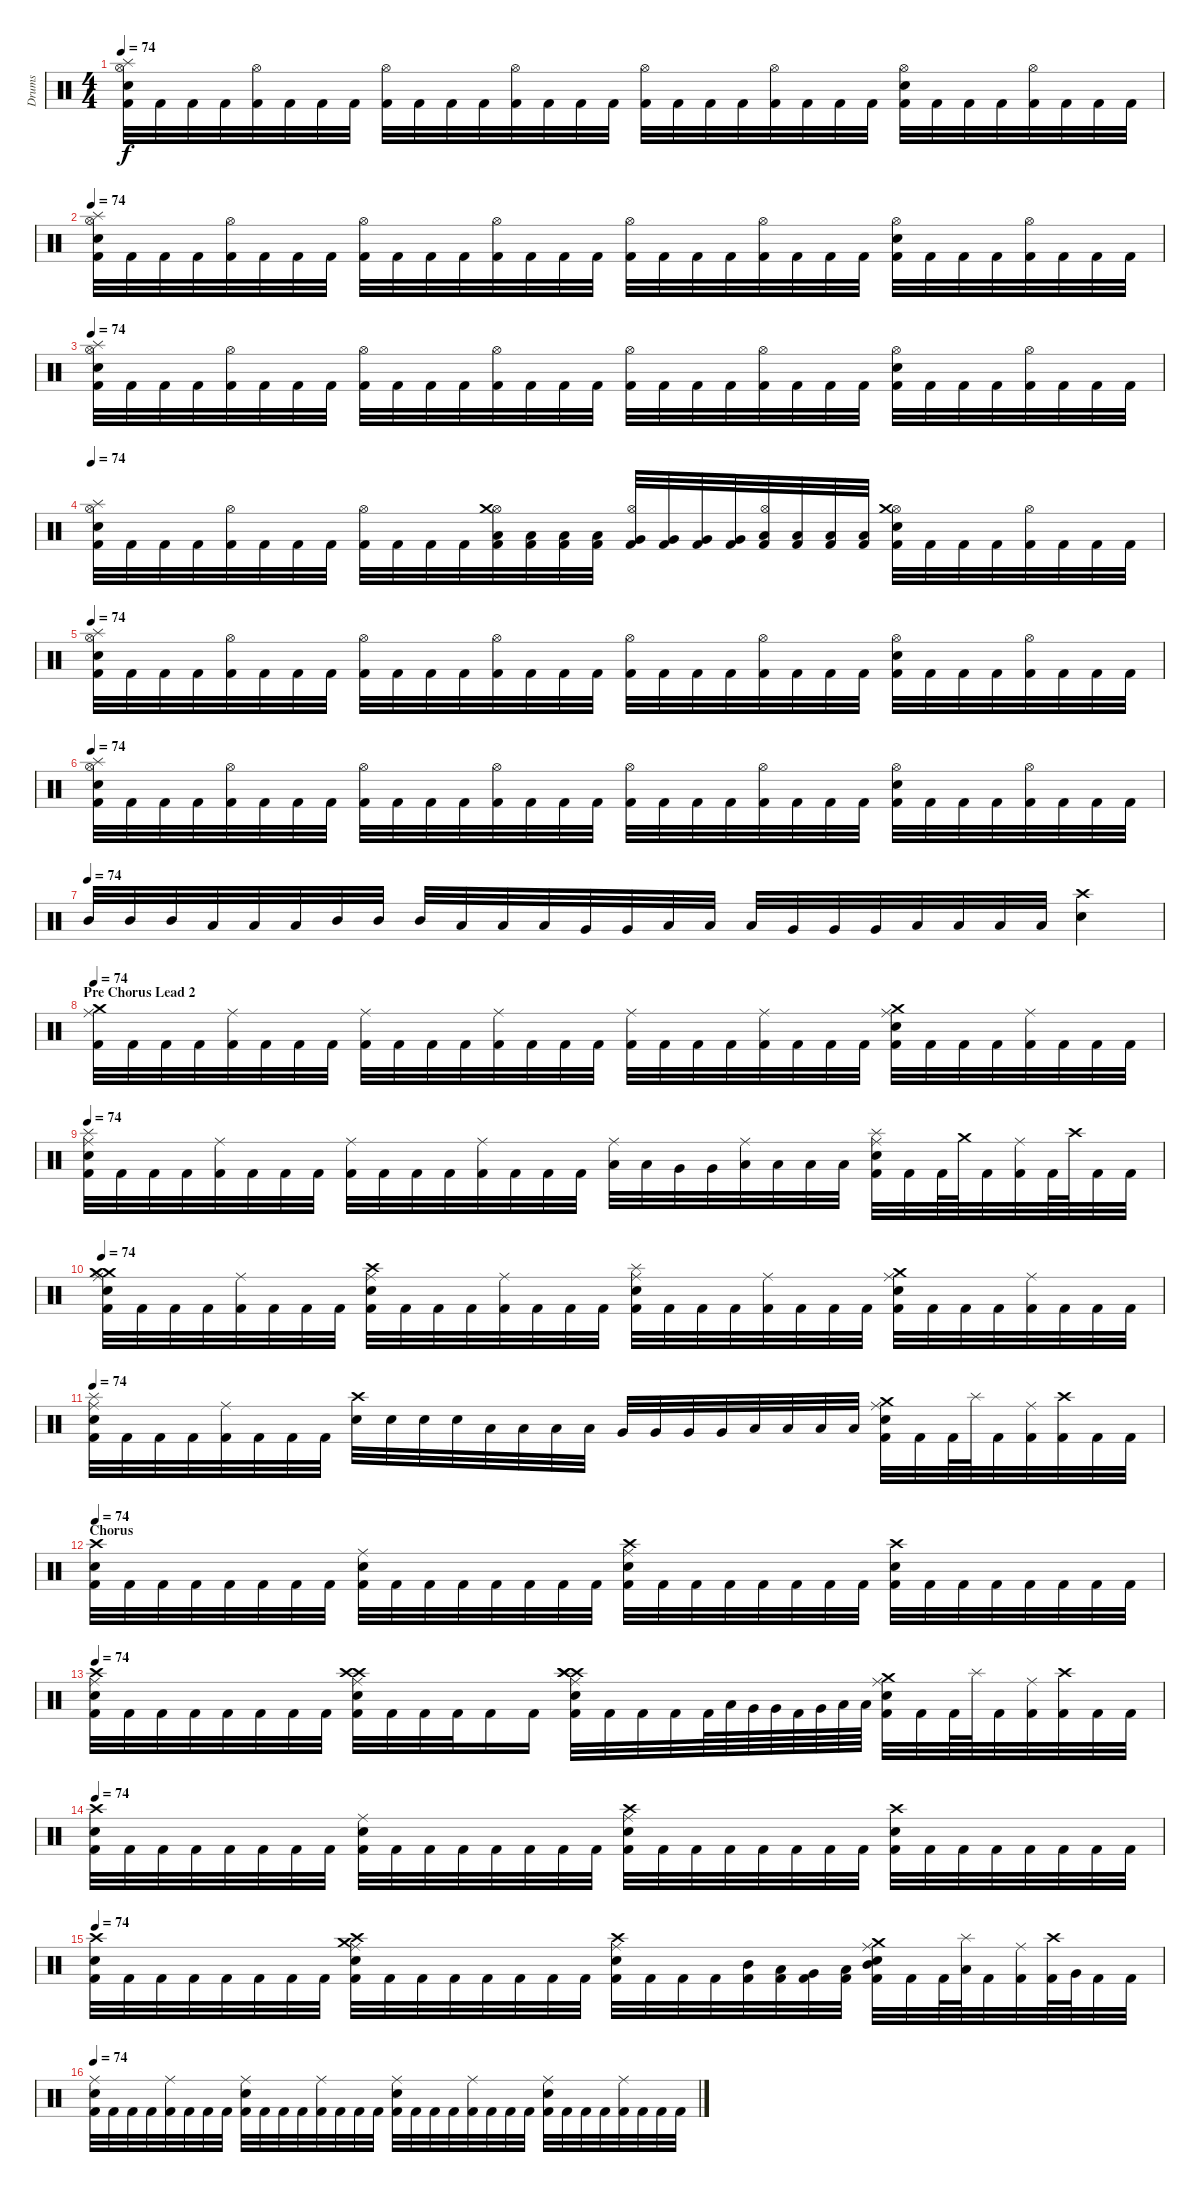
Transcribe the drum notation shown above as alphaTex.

\track ("Drums" "Drums") {instrument percussion}
\staff {score}
\articulation defaults
\ts (4 4)
\tempo 74
\clef neutral
\ks c
("Electric Snare (hit)" "Splash (hit)" "Kick (hit) 2" "Hi-Hat (open)").32{dy f} "Kick (hit) 2".32 "Kick (hit) 2".32 "Kick (hit) 2".32 ("Hi-Hat (open)" "Kick (hit) 2").32 "Kick (hit) 2".32 "Kick (hit) 2".32 "Kick (hit) 2".32 ("Hi-Hat (open)" "Kick (hit) 2").32 "Kick (hit) 2".32 "Kick (hit) 2".32 "Kick (hit) 2".32 ("Hi-Hat (open)" "Kick (hit) 2").32 "Kick (hit) 2".32 "Kick (hit) 2".32 "Kick (hit) 2".32 ("Hi-Hat (open)" "Kick (hit) 2").32 "Kick (hit) 2".32 "Kick (hit) 2".32 "Kick (hit) 2".32 ("Hi-Hat (open)" "Kick (hit) 2").32 "Kick (hit) 2".32 "Kick (hit) 2".32 "Kick (hit) 2".32 ("Hi-Hat (open)" "Electric Snare (hit)" "Kick (hit) 2").32 "Kick (hit) 2".32 "Kick (hit) 2".32 "Kick (hit) 2".32 ("Hi-Hat (open)" "Kick (hit) 2").32 "Kick (hit) 2".32 "Kick (hit) 2".32 "Kick (hit) 2".32 |
\tempo 74
("Hi-Hat (open)" "Kick (hit) 2" "Splash (hit)" "Electric Snare (hit)").32 "Kick (hit) 2".32 "Kick (hit) 2".32 "Kick (hit) 2".32 ("Hi-Hat (open)" "Kick (hit) 2").32 "Kick (hit) 2".32 "Kick (hit) 2".32 "Kick (hit) 2".32 ("Hi-Hat (open)" "Kick (hit) 2").32 "Kick (hit) 2".32 "Kick (hit) 2".32 "Kick (hit) 2".32 ("Hi-Hat (open)" "Kick (hit) 2").32 "Kick (hit) 2".32 "Kick (hit) 2".32 "Kick (hit) 2".32 ("Hi-Hat (open)" "Kick (hit) 2").32 "Kick (hit) 2".32 "Kick (hit) 2".32 "Kick (hit) 2".32 ("Hi-Hat (open)" "Kick (hit) 2").32 "Kick (hit) 2".32 "Kick (hit) 2".32 "Kick (hit) 2".32 ("Hi-Hat (open)" "Electric Snare (hit)" "Kick (hit) 2").32 "Kick (hit) 2".32 "Kick (hit) 2".32 "Kick (hit) 2".32 ("Hi-Hat (open)" "Kick (hit) 2").32 "Kick (hit) 2".32 "Kick (hit) 2".32 "Kick (hit) 2".32 |
\tempo 74
("Hi-Hat (open)" "Kick (hit) 2" "Splash (hit)" "Electric Snare (hit)").32 "Kick (hit) 2".32 "Kick (hit) 2".32 "Kick (hit) 2".32 ("Hi-Hat (open)" "Kick (hit) 2").32 "Kick (hit) 2".32 "Kick (hit) 2".32 "Kick (hit) 2".32 ("Hi-Hat (open)" "Kick (hit) 2").32 "Kick (hit) 2".32 "Kick (hit) 2".32 "Kick (hit) 2".32 ("Hi-Hat (open)" "Kick (hit) 2").32 "Kick (hit) 2".32 "Kick (hit) 2".32 "Kick (hit) 2".32 ("Hi-Hat (open)" "Kick (hit) 2").32 "Kick (hit) 2".32 "Kick (hit) 2".32 "Kick (hit) 2".32 ("Hi-Hat (open)" "Kick (hit) 2").32 "Kick (hit) 2".32 "Kick (hit) 2".32 "Kick (hit) 2".32 ("Hi-Hat (open)" "Electric Snare (hit)" "Kick (hit) 2").32 "Kick (hit) 2".32 "Kick (hit) 2".32 "Kick (hit) 2".32 ("Hi-Hat (open)" "Kick (hit) 2").32 "Kick (hit) 2".32 "Kick (hit) 2".32 "Kick (hit) 2".32 |
\tempo 74
("Electric Snare (hit)" "Splash (hit)" "Kick (hit) 2" "Hi-Hat (open)").32 "Kick (hit) 2".32 "Kick (hit) 2".32 "Kick (hit) 2".32 ("Hi-Hat (open)" "Kick (hit) 2").32 "Kick (hit) 2".32 "Kick (hit) 2".32 "Kick (hit) 2".32 ("Hi-Hat (open)" "Kick (hit) 2").32 "Kick (hit) 2".32 "Kick (hit) 2".32 "Kick (hit) 2".32 ("Hi-Hat (open)" "Kick (hit) 2" "Low Tom (hit)" "Crash medium (hit)").32 ("Kick (hit) 2" "Low Tom (hit)").32 ("Kick (hit) 2" "Low Tom (hit)").32 ("Kick (hit) 2" "Low Tom (hit)").32 ("Hi-Hat (open)" "Kick (hit) 2" "Very Low Tom (hit)").32 ("Kick (hit) 2" "Very Low Tom (hit)").32 ("Kick (hit) 2" "Very Low Tom (hit)").32 ("Kick (hit) 2" "Very Low Tom (hit)").32 ("Hi-Hat (open)" "Kick (hit) 2" "Low Floor Tom (hit)").32 ("Kick (hit) 2" "Low Floor Tom (hit)").32 ("Kick (hit) 2" "Low Floor Tom (hit)").32 ("Kick (hit) 2" "Low Floor Tom (hit)").32 ("Hi-Hat (open)" "Electric Snare (hit)" "Kick (hit) 2" "Crash medium (hit)").32 "Kick (hit) 2".32 "Kick (hit) 2".32 "Kick (hit) 2".32 ("Hi-Hat (open)" "Kick (hit) 2").32 "Kick (hit) 2".32 "Kick (hit) 2".32 "Kick (hit) 2".32 |
\tempo 74
("Electric Snare (hit)" "Splash (hit)" "Kick (hit) 2" "Hi-Hat (open)").32 "Kick (hit) 2".32 "Kick (hit) 2".32 "Kick (hit) 2".32 ("Hi-Hat (open)" "Kick (hit) 2").32 "Kick (hit) 2".32 "Kick (hit) 2".32 "Kick (hit) 2".32 ("Hi-Hat (open)" "Kick (hit) 2").32 "Kick (hit) 2".32 "Kick (hit) 2".32 "Kick (hit) 2".32 ("Hi-Hat (open)" "Kick (hit) 2").32 "Kick (hit) 2".32 "Kick (hit) 2".32 "Kick (hit) 2".32 ("Hi-Hat (open)" "Kick (hit) 2").32 "Kick (hit) 2".32 "Kick (hit) 2".32 "Kick (hit) 2".32 ("Hi-Hat (open)" "Kick (hit) 2").32 "Kick (hit) 2".32 "Kick (hit) 2".32 "Kick (hit) 2".32 ("Hi-Hat (open)" "Electric Snare (hit)" "Kick (hit) 2").32 "Kick (hit) 2".32 "Kick (hit) 2".32 "Kick (hit) 2".32 ("Hi-Hat (open)" "Kick (hit) 2").32 "Kick (hit) 2".32 "Kick (hit) 2".32 "Kick (hit) 2".32 |
\tempo 74
("Hi-Hat (open)" "Kick (hit) 2" "Splash (hit)" "Electric Snare (hit)").32 "Kick (hit) 2".32 "Kick (hit) 2".32 "Kick (hit) 2".32 ("Hi-Hat (open)" "Kick (hit) 2").32 "Kick (hit) 2".32 "Kick (hit) 2".32 "Kick (hit) 2".32 ("Hi-Hat (open)" "Kick (hit) 2").32 "Kick (hit) 2".32 "Kick (hit) 2".32 "Kick (hit) 2".32 ("Hi-Hat (open)" "Kick (hit) 2").32 "Kick (hit) 2".32 "Kick (hit) 2".32 "Kick (hit) 2".32 ("Hi-Hat (open)" "Kick (hit) 2").32 "Kick (hit) 2".32 "Kick (hit) 2".32 "Kick (hit) 2".32 ("Hi-Hat (open)" "Kick (hit) 2").32 "Kick (hit) 2".32 "Kick (hit) 2".32 "Kick (hit) 2".32 ("Hi-Hat (open)" "Electric Snare (hit)" "Kick (hit) 2").32 "Kick (hit) 2".32 "Kick (hit) 2".32 "Kick (hit) 2".32 ("Hi-Hat (open)" "Kick (hit) 2").32 "Kick (hit) 2".32 "Kick (hit) 2".32 "Kick (hit) 2".32 |
\tempo (74)
"Mid Tom (hit)".32 "Mid Tom (hit)".32 "Mid Tom (hit)".32 "Low Tom (hit)".32 "Low Tom (hit)".32 "Low Tom (hit)".32 "Mid Tom (hit)".32 "Mid Tom (hit)".32 "Mid Tom (hit)".32 "Low Tom (hit)".32 "Low Tom (hit)".32 "Low Tom (hit)".32 "Very Low Tom (hit)".32 "Very Low Tom (hit)".32 "Low Tom (hit)".32 "Low Tom (hit)".32 "Low Tom (hit)".32 "Very Low Tom (hit)".32 "Very Low Tom (hit)".32 "Very Low Tom (hit)".32 "Low Floor Tom (hit)".32 "Low Floor Tom (hit)".32 "Low Floor Tom (hit)".32 "Low Floor Tom (hit)".32 ("Crash high (hit)" "Electric Snare (hit)").4 |
\section ("" "Pre Chorus Lead 2")
\tempo 74
("Kick (hit) 2" "Ride (middle)" "Crash medium (hit)").32 "Kick (hit) 2".32 "Kick (hit) 2".32 "Kick (hit) 2".32 ("Ride (middle)" "Kick (hit) 2").32 "Kick (hit) 2".32 "Kick (hit) 2".32 "Kick (hit) 2".32 ("Ride (middle)" "Kick (hit) 2").32 "Kick (hit) 2".32 "Kick (hit) 2".32 "Kick (hit) 2".32 ("Ride (middle)" "Kick (hit) 2").32 "Kick (hit) 2".32 "Kick (hit) 2".32 "Kick (hit) 2".32 ("Ride (middle)" "Kick (hit) 2").32 "Kick (hit) 2".32 "Kick (hit) 2".32 "Kick (hit) 2".32 ("Ride (middle)" "Kick (hit) 2").32 "Kick (hit) 2".32 "Kick (hit) 2".32 "Kick (hit) 2".32 ("Crash medium (hit)" "Ride (middle)" "Kick (hit) 2" "Electric Snare (hit)").32 "Kick (hit) 2".32 "Kick (hit) 2".32 "Kick (hit) 2".32 ("Ride (middle)" "Kick (hit) 2").32 "Kick (hit) 2".32 "Kick (hit) 2".32 "Kick (hit) 2".32 |
\tempo 74
("Electric Snare (hit)" "Kick (hit) 2" "Ride (middle)" "Splash (hit)").32 "Kick (hit) 2".32 "Kick (hit) 2".32 "Kick (hit) 2".32 ("Ride (middle)" "Kick (hit) 2").32 "Kick (hit) 2".32 "Kick (hit) 2".32 "Kick (hit) 2".32 ("Ride (middle)" "Kick (hit) 2").32 "Kick (hit) 2".32 "Kick (hit) 2".32 "Kick (hit) 2".32 ("Ride (middle)" "Kick (hit) 2").32 "Kick (hit) 2".32 "Kick (hit) 2".32 "Kick (hit) 2".32 ("Ride (middle)" "Low Tom (hit)").32 "Low Tom (hit)".32 "Very Low Tom (hit)".32 "Very Low Tom (hit)".32 ("Ride (middle)" "Low Floor Tom (hit)").32 "Low Floor Tom (hit)".32 "Low Floor Tom (hit)".32 "Low Floor Tom (hit)".32 ("Ride (middle)" "Kick (hit) 2" "Electric Snare (hit)" "Splash (hit)").32 "Kick (hit) 2".32 "Kick (hit) 2".64 "Crash medium (hit)".64 "Kick (hit) 2".32 ("Ride (middle)" "Kick (hit) 2").32 "Kick (hit) 2".64 "Crash high (hit)".64 "Kick (hit) 2".32 "Kick (hit) 2".32 |
\tempo 74
("Crash medium (hit)" "Kick (hit) 2" "Ride (middle)" "Crash medium (hit)" "Electric Snare (hit)").32 "Kick (hit) 2".32 "Kick (hit) 2".32 "Kick (hit) 2".32 ("Ride (middle)" "Kick (hit) 2").32 "Kick (hit) 2".32 "Kick (hit) 2".32 "Kick (hit) 2".32 ("Ride (middle)" "Kick (hit) 2" "Electric Snare (hit)" "Crash high (hit)").32 "Kick (hit) 2".32 "Kick (hit) 2".32 "Kick (hit) 2".32 ("Ride (middle)" "Kick (hit) 2").32 "Kick (hit) 2".32 "Kick (hit) 2".32 "Kick (hit) 2".32 ("Ride (middle)" "Kick (hit) 2" "Electric Snare (hit)" "Splash (hit)").32 "Kick (hit) 2".32 "Kick (hit) 2".32 "Kick (hit) 2".32 ("Ride (middle)" "Kick (hit) 2").32 "Kick (hit) 2".32 "Kick (hit) 2".32 "Kick (hit) 2".32 ("Crash medium (hit)" "Ride (middle)" "Kick (hit) 2" "Electric Snare (hit)").32 "Kick (hit) 2".32 "Kick (hit) 2".32 "Kick (hit) 2".32 ("Ride (middle)" "Kick (hit) 2").32 "Kick (hit) 2".32 "Kick (hit) 2".32 "Kick (hit) 2".32 |
\tempo 74
("Splash (hit)" "Ride (middle)" "Kick (hit) 2" "Electric Snare (hit)").32 "Kick (hit) 2".32 "Kick (hit) 2".32 "Kick (hit) 2".32 ("Ride (middle)" "Kick (hit) 2").32 "Kick (hit) 2".32 "Kick (hit) 2".32 "Kick (hit) 2".32 ("Electric Snare (hit)" "Crash high (hit)").32 "Electric Snare (hit)".32 "Electric Snare (hit)".32 "Electric Snare (hit)".32 "Low Tom (hit)".32 "Low Tom (hit)".32 "Low Tom (hit)".32 "Low Tom (hit)".32 "Very Low Tom (hit)".32 "Very Low Tom (hit)".32 "Very Low Tom (hit)".32 "Very Low Tom (hit)".32 "Low Floor Tom (hit)".32 "Low Floor Tom (hit)".32 "Low Floor Tom (hit)".32 "Low Floor Tom (hit)".32 ("Crash medium (hit)" "Electric Snare (hit)" "Kick (hit) 2" "Ride (middle)").32 "Kick (hit) 2".32 "Kick (hit) 2".64 "Splash (hit)".64 "Kick (hit) 2".32 ("Ride (middle)" "Kick (hit) 2").32 ("Kick (hit) 2" "Crash high (hit)").32 "Kick (hit) 2".32 "Kick (hit) 2".32 |
\section ("" "Chorus")
\tempo 74
("Crash high (hit)" "Kick (hit) 2" "Electric Snare (hit)").32 "Kick (hit) 2".32 "Kick (hit) 2".32 "Kick (hit) 2".32 "Kick (hit) 2".32 "Kick (hit) 2".32 "Kick (hit) 2".32 "Kick (hit) 2".32 ("Electric Snare (hit)" "Kick (hit) 2" "Ride (middle)").32 "Kick (hit) 2".32 "Kick (hit) 2".32 "Kick (hit) 2".32 "Kick (hit) 2".32 "Kick (hit) 2".32 "Kick (hit) 2".32 "Kick (hit) 2".32 ("Electric Snare (hit)" "Kick (hit) 2" "Crash high (hit)" "Ride (middle)").32 "Kick (hit) 2".32 "Kick (hit) 2".32 "Kick (hit) 2".32 "Kick (hit) 2".32 "Kick (hit) 2".32 "Kick (hit) 2".32 "Kick (hit) 2".32 ("Electric Snare (hit)" "Kick (hit) 2" "Crash high (hit)").32 "Kick (hit) 2".32 "Kick (hit) 2".32 "Kick (hit) 2".32 "Kick (hit) 2".32 "Kick (hit) 2".32 "Kick (hit) 2".32 "Kick (hit) 2".32 |
\tempo 74
("Crash high (hit)" "Electric Snare (hit)" "Kick (hit) 2" "Ride (middle)").32 "Kick (hit) 2".32 "Kick (hit) 2".32 "Kick (hit) 2".32 "Kick (hit) 2".32 "Kick (hit) 2".32 "Kick (hit) 2".32 "Kick (hit) 2".32 ("Crash high (hit)" "Electric Snare (hit)" "Crash high (hit)" "Kick (hit) 2" "Ride (middle)").32 "Kick (hit) 2".32 "Kick (hit) 2".32 "Kick (hit) 2".32 "Kick (hit) 2".16 "Kick (hit) 2".16 ("Crash high (hit)" "Crash high (hit)" "Electric Snare (hit)" "Crash high (hit)" "Kick (hit) 2" "Ride (middle)").32 "Kick (hit) 2".32 "Kick (hit) 2".32 "Kick (hit) 2".32 "Kick (hit) 2".64 "Low Tom (hit)".64 "Very Low Tom (hit)".64 "Very Low Tom (hit)".64 "Kick (hit) 2".64 "Very Low Tom (hit)".64 "Low Floor Tom (hit)".64 "Low Floor Tom (hit)".64 ("Ride (middle)" "Kick (hit) 2" "Crash medium (hit)" "Electric Snare (hit)").32 "Kick (hit) 2".32 "Kick (hit) 2".64 "Splash (hit)".64 "Kick (hit) 2".32 ("Ride (middle)" "Kick (hit) 2").32 ("Kick (hit) 2" "Crash high (hit)").32 "Kick (hit) 2".32 "Kick (hit) 2".32 |
\tempo 74
("Electric Snare (hit)" "Kick (hit) 2" "Crash high (hit)").32 "Kick (hit) 2".32 "Kick (hit) 2".32 "Kick (hit) 2".32 "Kick (hit) 2".32 "Kick (hit) 2".32 "Kick (hit) 2".32 "Kick (hit) 2".32 ("Electric Snare (hit)" "Kick (hit) 2" "Ride (middle)").32 "Kick (hit) 2".32 "Kick (hit) 2".32 "Kick (hit) 2".32 "Kick (hit) 2".32 "Kick (hit) 2".32 "Kick (hit) 2".32 "Kick (hit) 2".32 ("Electric Snare (hit)" "Kick (hit) 2" "Crash high (hit)" "Ride (middle)").32 "Kick (hit) 2".32 "Kick (hit) 2".32 "Kick (hit) 2".32 "Kick (hit) 2".32 "Kick (hit) 2".32 "Kick (hit) 2".32 "Kick (hit) 2".32 ("Electric Snare (hit)" "Kick (hit) 2" "Crash high (hit)").32 "Kick (hit) 2".32 "Kick (hit) 2".32 "Kick (hit) 2".32 "Kick (hit) 2".32 "Kick (hit) 2".32 "Kick (hit) 2".32 "Kick (hit) 2".32 |
\tempo 74
("Electric Snare (hit)" "Kick (hit) 2" "Crash high (hit)").32 "Kick (hit) 2".32 "Kick (hit) 2".32 "Kick (hit) 2".32 "Kick (hit) 2".32 "Kick (hit) 2".32 "Kick (hit) 2".32 "Kick (hit) 2".32 ("Electric Snare (hit)" "Kick (hit) 2" "Ride (middle)" "Crash medium (hit)" "Crash high (hit)").32 "Kick (hit) 2".32 "Kick (hit) 2".32 "Kick (hit) 2".32 "Kick (hit) 2".32 "Kick (hit) 2".32 "Kick (hit) 2".32 "Kick (hit) 2".32 ("Electric Snare (hit)" "Kick (hit) 2" "Crash high (hit)" "Ride (middle)").32 "Kick (hit) 2".32 "Kick (hit) 2".32 "Kick (hit) 2".32 ("Kick (hit) 2" "Mid Tom (hit)").32 ("Kick (hit) 2" "Low Tom (hit)").32 ("Kick (hit) 2" "Very Low Tom (hit)").32 ("Kick (hit) 2" "Low Tom (hit)").32 ("Kick (hit) 2" "Electric Snare (hit)" "Crash medium (hit)" "Ride (middle)" "Mid Tom (hit)").32 "Kick (hit) 2".32 "Kick (hit) 2".64 ("Splash (hit)" "Low Tom (hit)").64 "Kick (hit) 2".32 ("Kick (hit) 2" "Ride (middle)").32 ("Kick (hit) 2" "Crash high (hit)").64 "Very Low Tom (hit)".64 "Kick (hit) 2".32 "Kick (hit) 2".32 |
\tempo 74
("Ride (middle)" "Kick (hit) 2" "Electric Snare (hit)").32 "Kick (hit) 2".32 "Kick (hit) 2".32 "Kick (hit) 2".32 ("Kick (hit) 2" "Ride (middle)").32 "Kick (hit) 2".32 "Kick (hit) 2".32 "Kick (hit) 2".32 ("Ride (middle)" "Kick (hit) 2" "Electric Snare (hit)").32 "Kick (hit) 2".32 "Kick (hit) 2".32 "Kick (hit) 2".32 ("Kick (hit) 2" "Ride (middle)").32 "Kick (hit) 2".32 "Kick (hit) 2".32 "Kick (hit) 2".32 ("Ride (middle)" "Kick (hit) 2" "Electric Snare (hit)").32 "Kick (hit) 2".32 "Kick (hit) 2".32 "Kick (hit) 2".32 ("Kick (hit) 2" "Ride (middle)").32 "Kick (hit) 2".32 "Kick (hit) 2".32 "Kick (hit) 2".32 ("Ride (middle)" "Kick (hit) 2" "Electric Snare (hit)").32 "Kick (hit) 2".32 "Kick (hit) 2".32 "Kick (hit) 2".32 ("Kick (hit) 2" "Ride (middle)").32 "Kick (hit) 2".32 "Kick (hit) 2".32 "Kick (hit) 2".32
